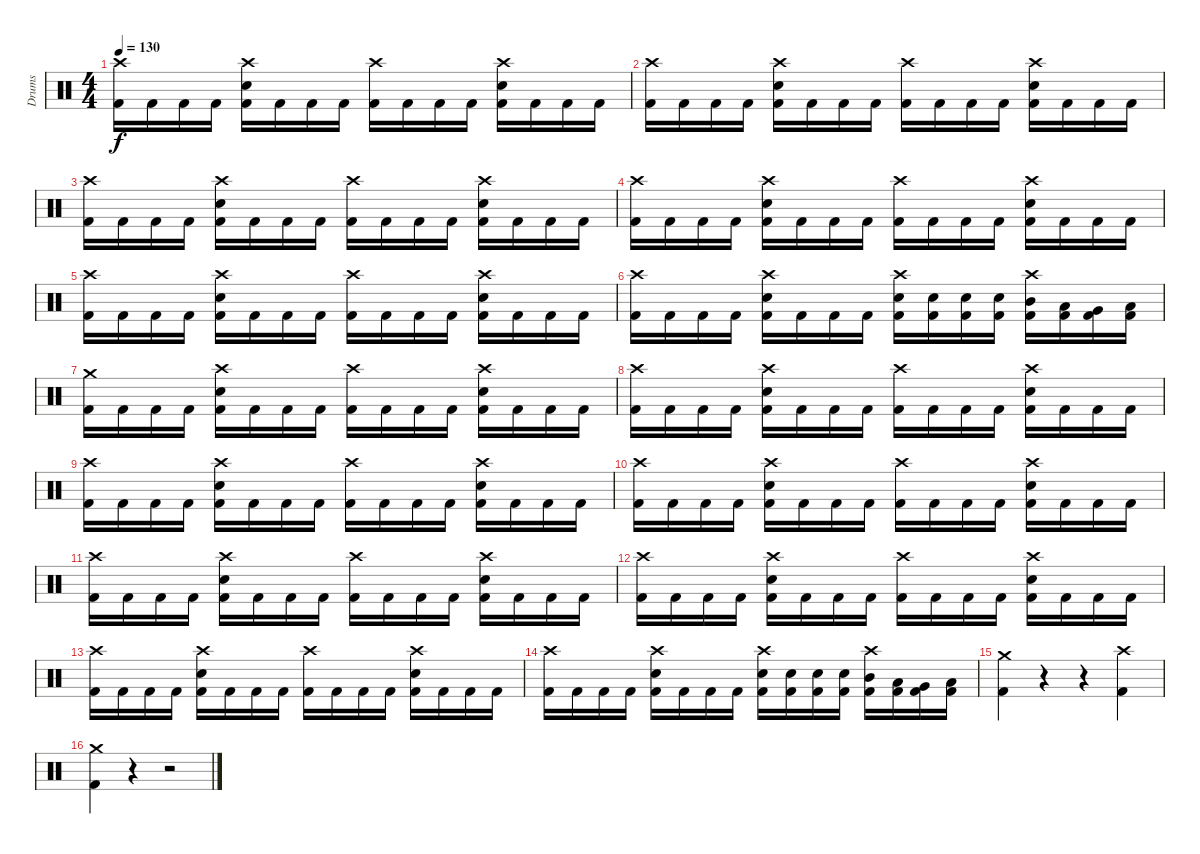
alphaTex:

\track ("Drums" "Drums") {instrument percussion}
\staff {score}
\articulation defaults
\ts (4 4)
\tempo 130
\clef neutral
\ks c
("Crash high (hit)" "Kick (hit) 2").16{dy f} "Kick (hit) 2".16 "Kick (hit) 2".16 "Kick (hit) 2".16 ("Crash high (hit)" "Electric Snare (hit)" "Kick (hit) 2").16 "Kick (hit) 2".16 "Kick (hit) 2".16 "Kick (hit) 2".16 ("Crash high (hit)" "Kick (hit) 2").16 "Kick (hit) 2".16 "Kick (hit) 2".16 "Kick (hit) 2".16 ("Crash high (hit)" "Electric Snare (hit)" "Kick (hit) 2").16 "Kick (hit) 2".16 "Kick (hit) 2".16 "Kick (hit) 2".16 |
("Crash high (hit)" "Kick (hit) 2").16 "Kick (hit) 2".16 "Kick (hit) 2".16 "Kick (hit) 2".16 ("Crash high (hit)" "Electric Snare (hit)" "Kick (hit) 2").16 "Kick (hit) 2".16 "Kick (hit) 2".16 "Kick (hit) 2".16 ("Crash high (hit)" "Kick (hit) 2").16 "Kick (hit) 2".16 "Kick (hit) 2".16 "Kick (hit) 2".16 ("Crash high (hit)" "Electric Snare (hit)" "Kick (hit) 2").16 "Kick (hit) 2".16 "Kick (hit) 2".16 "Kick (hit) 2".16 |
("Crash high (hit)" "Kick (hit) 2").16 "Kick (hit) 2".16 "Kick (hit) 2".16 "Kick (hit) 2".16 ("Crash high (hit)" "Electric Snare (hit)" "Kick (hit) 2").16 "Kick (hit) 2".16 "Kick (hit) 2".16 "Kick (hit) 2".16 ("Crash high (hit)" "Kick (hit) 2").16 "Kick (hit) 2".16 "Kick (hit) 2".16 "Kick (hit) 2".16 ("Crash high (hit)" "Electric Snare (hit)" "Kick (hit) 2").16 "Kick (hit) 2".16 "Kick (hit) 2".16 "Kick (hit) 2".16 |
("Crash high (hit)" "Kick (hit) 2").16 "Kick (hit) 2".16 "Kick (hit) 2".16 "Kick (hit) 2".16 ("Crash high (hit)" "Electric Snare (hit)" "Kick (hit) 2").16 "Kick (hit) 2".16 "Kick (hit) 2".16 "Kick (hit) 2".16 ("Crash high (hit)" "Kick (hit) 2").16 "Kick (hit) 2".16 "Kick (hit) 2".16 "Kick (hit) 2".16 ("Crash high (hit)" "Electric Snare (hit)" "Kick (hit) 2").16 "Kick (hit) 2".16 "Kick (hit) 2".16 "Kick (hit) 2".16 |
("Crash high (hit)" "Kick (hit) 2").16 "Kick (hit) 2".16 "Kick (hit) 2".16 "Kick (hit) 2".16 ("Crash high (hit)" "Electric Snare (hit)" "Kick (hit) 2").16 "Kick (hit) 2".16 "Kick (hit) 2".16 "Kick (hit) 2".16 ("Crash high (hit)" "Kick (hit) 2").16 "Kick (hit) 2".16 "Kick (hit) 2".16 "Kick (hit) 2".16 ("Crash high (hit)" "Electric Snare (hit)" "Kick (hit) 2").16 "Kick (hit) 2".16 "Kick (hit) 2".16 "Kick (hit) 2".16 |
("Crash high (hit)" "Kick (hit) 2").16 "Kick (hit) 2".16 "Kick (hit) 2".16 "Kick (hit) 2".16 ("Crash high (hit)" "Electric Snare (hit)" "Kick (hit) 2").16 "Kick (hit) 2".16 "Kick (hit) 2".16 "Kick (hit) 2".16 ("Crash high (hit)" "Electric Snare (hit)" "Kick (hit) 2").16 ("Electric Snare (hit)" "Kick (hit) 2").16 ("Electric Snare (hit)" "Kick (hit) 2").16 ("Electric Snare (hit)" "Kick (hit) 2").16 ("Crash high (hit)" "Mid Tom (hit)" "Kick (hit) 2").16 ("Low Tom (hit)" "Kick (hit) 2").16 ("Very Low Tom (hit)" "Kick (hit) 2").16 ("Low Floor Tom (hit)" "Kick (hit) 2").16 |
("Crash medium (hit)" "Kick (hit) 2").16 "Kick (hit) 2".16 "Kick (hit) 2".16 "Kick (hit) 2".16 ("Crash high (hit)" "Electric Snare (hit)" "Kick (hit) 2").16 "Kick (hit) 2".16 "Kick (hit) 2".16 "Kick (hit) 2".16 ("Crash high (hit)" "Kick (hit) 2").16 "Kick (hit) 2".16 "Kick (hit) 2".16 "Kick (hit) 2".16 ("Crash high (hit)" "Electric Snare (hit)" "Kick (hit) 2").16 "Kick (hit) 2".16 "Kick (hit) 2".16 "Kick (hit) 2".16 |
("Crash high (hit)" "Kick (hit) 2").16 "Kick (hit) 2".16 "Kick (hit) 2".16 "Kick (hit) 2".16 ("Crash high (hit)" "Electric Snare (hit)" "Kick (hit) 2").16 "Kick (hit) 2".16 "Kick (hit) 2".16 "Kick (hit) 2".16 ("Crash high (hit)" "Kick (hit) 2").16 "Kick (hit) 2".16 "Kick (hit) 2".16 "Kick (hit) 2".16 ("Crash high (hit)" "Electric Snare (hit)" "Kick (hit) 2").16 "Kick (hit) 2".16 "Kick (hit) 2".16 "Kick (hit) 2".16 |
("Crash high (hit)" "Kick (hit) 2").16 "Kick (hit) 2".16 "Kick (hit) 2".16 "Kick (hit) 2".16 ("Crash high (hit)" "Electric Snare (hit)" "Kick (hit) 2").16 "Kick (hit) 2".16 "Kick (hit) 2".16 "Kick (hit) 2".16 ("Crash high (hit)" "Kick (hit) 2").16 "Kick (hit) 2".16 "Kick (hit) 2".16 "Kick (hit) 2".16 ("Crash high (hit)" "Electric Snare (hit)" "Kick (hit) 2").16 "Kick (hit) 2".16 "Kick (hit) 2".16 "Kick (hit) 2".16 |
("Crash high (hit)" "Kick (hit) 2").16 "Kick (hit) 2".16 "Kick (hit) 2".16 "Kick (hit) 2".16 ("Crash high (hit)" "Electric Snare (hit)" "Kick (hit) 2").16 "Kick (hit) 2".16 "Kick (hit) 2".16 "Kick (hit) 2".16 ("Crash high (hit)" "Kick (hit) 2").16 "Kick (hit) 2".16 "Kick (hit) 2".16 "Kick (hit) 2".16 ("Crash high (hit)" "Electric Snare (hit)" "Kick (hit) 2").16 "Kick (hit) 2".16 "Kick (hit) 2".16 "Kick (hit) 2".16 |
("Crash high (hit)" "Kick (hit) 2").16 "Kick (hit) 2".16 "Kick (hit) 2".16 "Kick (hit) 2".16 ("Crash high (hit)" "Electric Snare (hit)" "Kick (hit) 2").16 "Kick (hit) 2".16 "Kick (hit) 2".16 "Kick (hit) 2".16 ("Crash high (hit)" "Kick (hit) 2").16 "Kick (hit) 2".16 "Kick (hit) 2".16 "Kick (hit) 2".16 ("Crash high (hit)" "Electric Snare (hit)" "Kick (hit) 2").16 "Kick (hit) 2".16 "Kick (hit) 2".16 "Kick (hit) 2".16 |
("Crash high (hit)" "Kick (hit) 2").16 "Kick (hit) 2".16 "Kick (hit) 2".16 "Kick (hit) 2".16 ("Crash high (hit)" "Electric Snare (hit)" "Kick (hit) 2").16 "Kick (hit) 2".16 "Kick (hit) 2".16 "Kick (hit) 2".16 ("Crash high (hit)" "Kick (hit) 2").16 "Kick (hit) 2".16 "Kick (hit) 2".16 "Kick (hit) 2".16 ("Crash high (hit)" "Electric Snare (hit)" "Kick (hit) 2").16 "Kick (hit) 2".16 "Kick (hit) 2".16 "Kick (hit) 2".16 |
("Crash high (hit)" "Kick (hit) 2").16 "Kick (hit) 2".16 "Kick (hit) 2".16 "Kick (hit) 2".16 ("Crash high (hit)" "Electric Snare (hit)" "Kick (hit) 2").16 "Kick (hit) 2".16 "Kick (hit) 2".16 "Kick (hit) 2".16 ("Crash high (hit)" "Kick (hit) 2").16 "Kick (hit) 2".16 "Kick (hit) 2".16 "Kick (hit) 2".16 ("Crash high (hit)" "Electric Snare (hit)" "Kick (hit) 2").16 "Kick (hit) 2".16 "Kick (hit) 2".16 "Kick (hit) 2".16 |
("Crash high (hit)" "Kick (hit) 2").16 "Kick (hit) 2".16 "Kick (hit) 2".16 "Kick (hit) 2".16 ("Crash high (hit)" "Electric Snare (hit)" "Kick (hit) 2").16 "Kick (hit) 2".16 "Kick (hit) 2".16 "Kick (hit) 2".16 ("Crash high (hit)" "Electric Snare (hit)" "Kick (hit) 2").16 ("Electric Snare (hit)" "Kick (hit) 2").16 ("Electric Snare (hit)" "Kick (hit) 2").16 ("Electric Snare (hit)" "Kick (hit) 2").16 ("Crash high (hit)" "Mid Tom (hit)" "Kick (hit) 2").16 ("Low Tom (hit)" "Kick (hit) 2").16 ("Very Low Tom (hit)" "Kick (hit) 2").16 ("Low Floor Tom (hit)" "Kick (hit) 2").16 |
("Crash medium (hit)" "Kick (hit) 2").4 r.4 r.4 ("Crash high (hit)" "Kick (hit) 2").4 |
("Crash medium (hit)" "Kick (hit) 2").4 r.4 r.2
